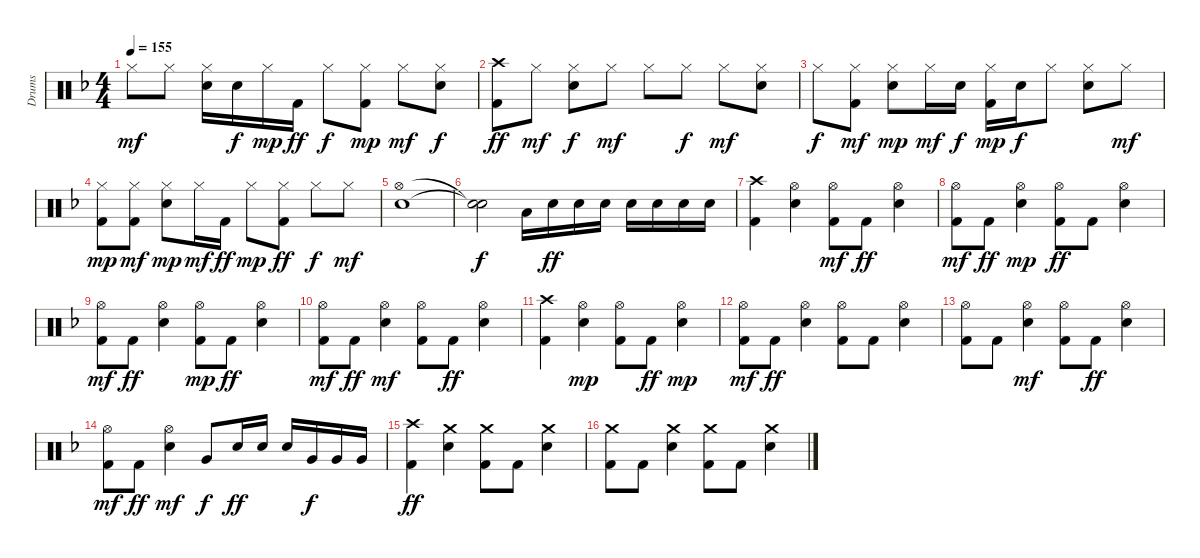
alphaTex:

\track ("Drums" "Drums") {instrument percussion}
\staff {score}
\articulation defaults
\ts (4 4)
\tempo 155
\clef neutral
\ks f "Hi-Hat (closed)".8{dy mf} "Hi-Hat (closed)".8
("Snare (hit) 2" "Hi-Hat (closed)").16 "Snare (hit) 2".16{dy f} "Hi-Hat (closed)".16{dy mp} "Kick (hit) 2".16{dy ff} "Hi-Hat (closed)".8{dy f} ("Kick (hit) 2" "Hi-Hat (closed)").8{dy mp} "Hi-Hat (closed)".8{dy mf} ("Snare (hit) 2" "Hi-Hat (closed)").8{dy f} |
("Kick (hit) 2" "Crash high (hit)").8{dy ff} "Hi-Hat (closed)".8{dy mf} ("Snare (hit) 2" "Hi-Hat (closed)").8{dy f} "Hi-Hat (closed)".8{dy mf} "Hi-Hat (closed)".8 "Hi-Hat (closed)".8{dy f} "Hi-Hat (closed)".8{dy mf} ("Snare (hit) 2" "Hi-Hat (closed)").8 |
"Hi-Hat (closed)".8{dy f} ("Kick (hit) 2" "Hi-Hat (closed)").8{dy mf} ("Snare (hit) 2" "Hi-Hat (closed)").8{dy mp} "Hi-Hat (closed)".16{dy mf} "Snare (hit) 2".16{dy f} ("Kick (hit) 2" "Hi-Hat (closed)").16{dy mp} "Snare (hit) 2".16{dy f} "Hi-Hat (closed)".8 ("Snare (hit) 2" "Hi-Hat (closed)").8 "Hi-Hat (closed)".8{dy mf} |
("Kick (hit) 2" "Hi-Hat (closed)").8{dy mp} ("Kick (hit) 2" "Hi-Hat (closed)").8{dy mf} ("Snare (hit) 2" "Hi-Hat (closed)").8{dy mp} "Hi-Hat (closed)".16{dy mf} "Kick (hit) 2".16{dy ff} "Hi-Hat (closed)".8{dy mp} ("Kick (hit) 2" "Hi-Hat (closed)").8{dy ff} "Hi-Hat (closed)".8{dy f} "Hi-Hat (closed)".8{dy mf} |
("Snare (hit) 2" "Hi-Hat (open)").1 |
("Snare (hit)"{t} "Snare (hit)"{t}).2{dy f} "Low Tom (hit)".16 "Snare (hit) 2".16{dy ff} "Snare (hit) 2".16 "Snare (hit) 2".16 "Snare (hit) 2".16 "Snare (hit) 2".16 "Snare (hit) 2".16 "Snare (hit) 2".16 |
("Kick (hit) 2" "Crash high (hit)").4 ("Snare (hit) 2" "Hi-Hat (open)").4 ("Kick (hit) 2" "Hi-Hat (open)").8{dy mf} "Kick (hit) 2".8{dy ff} ("Snare (hit) 2" "Hi-Hat (open)").4 |
("Kick (hit) 2" "Hi-Hat (open)").8{dy mf} "Kick (hit) 2".8{dy ff} ("Snare (hit) 2" "Hi-Hat (open)").4{dy mp} ("Kick (hit) 2" "Hi-Hat (open)").8{dy ff} "Kick (hit) 2".8 ("Snare (hit) 2" "Hi-Hat (open)").4 |
("Kick (hit) 2" "Hi-Hat (open)").8{dy mf} "Kick (hit) 2".8{dy ff} ("Snare (hit) 2" "Hi-Hat (open)").4 ("Kick (hit) 2" "Hi-Hat (open)").8{dy mp} "Kick (hit) 2".8{dy ff} ("Snare (hit) 2" "Hi-Hat (open)").4 |
("Kick (hit) 2" "Hi-Hat (open)").8{dy mf} "Kick (hit) 2".8{dy ff} ("Snare (hit) 2" "Hi-Hat (open)").4{dy mf} ("Kick (hit) 2" "Hi-Hat (open)").8 "Kick (hit) 2".8{dy ff} ("Snare (hit) 2" "Hi-Hat (open)").4 |
("Kick (hit) 2" "Crash high (hit)").4 ("Snare (hit) 2" "Hi-Hat (open)").4{dy mp} ("Kick (hit) 2" "Hi-Hat (open)").8 "Kick (hit) 2".8{dy ff} ("Snare (hit) 2" "Hi-Hat (open)").4{dy mp} |
("Kick (hit) 2" "Hi-Hat (open)").8{dy mf} "Kick (hit) 2".8{dy ff} ("Snare (hit) 2" "Hi-Hat (open)").4 ("Kick (hit) 2" "Hi-Hat (open)").8 "Kick (hit) 2".8 ("Snare (hit) 2" "Hi-Hat (open)").4 |
("Kick (hit) 2" "Hi-Hat (open)").8 "Kick (hit) 2".8 ("Snare (hit) 2" "Hi-Hat (open)").4{dy mf} ("Kick (hit) 2" "Hi-Hat (open)").8 "Kick (hit) 2".8{dy ff} ("Snare (hit) 2" "Hi-Hat (open)").4 |
("Kick (hit) 2" "Hi-Hat (open)").8{dy mf} "Kick (hit) 2".8{dy ff} ("Snare (hit) 2" "Hi-Hat (open)").4{dy mf} "Very Low Tom (hit)".8{dy f} "Snare (hit) 2".16{dy ff} "Snare (hit) 2".16 "Snare (hit) 2".16 "Very Low Tom (hit)".16{dy f} "Very Low Tom (hit)".16 "Very Low Tom (hit)".16 |
("Kick (hit) 2" "Crash high (hit)").4{dy ff} ("Snare (hit) 2" "Crash medium (hit)").4 ("Kick (hit) 2" "Crash medium (hit)").8 "Kick (hit) 2".8 ("Snare (hit) 2" "Crash medium (hit)").4 |
("Kick (hit) 2" "Crash medium (hit)").8 "Kick (hit) 2".8 ("Snare (hit) 2" "Crash medium (hit)").4 ("Kick (hit) 2" "Crash medium (hit)").8 "Kick (hit) 2".8 ("Snare (hit) 2" "Crash medium (hit)").4
